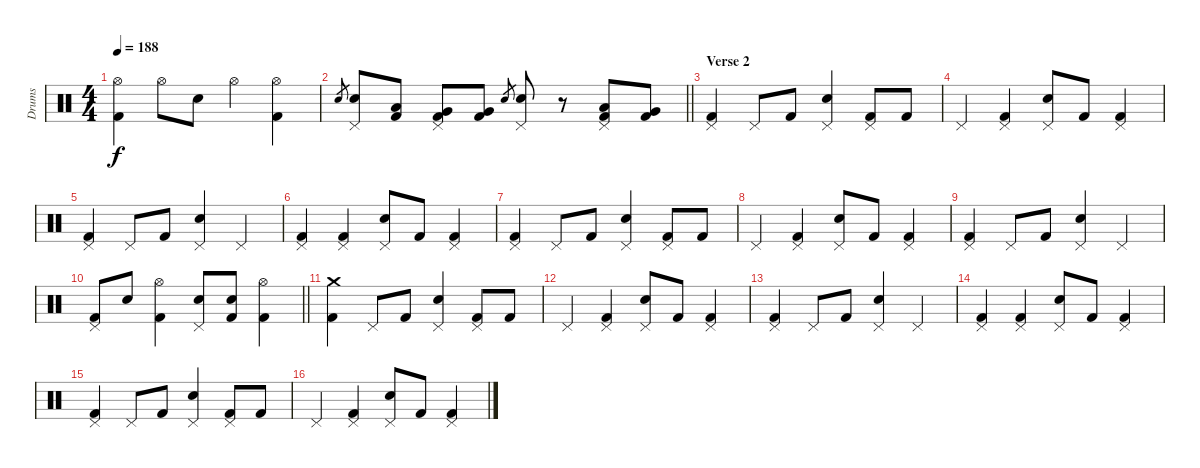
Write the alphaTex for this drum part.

\track ("Drums" "Drums") {instrument percussion}
\staff {score}
\articulation defaults
\ts (4 4)
\tempo 188
\clef neutral
\ks c
("Hi-Hat (open)" "Kick (hit) 2").4{dy f} "Hi-Hat (open)".8 "Electric Snare (hit)".8 "Hi-Hat (open)".4 ("Hi-Hat (open)" "Kick (hit) 2").4 |
\barLineRight lightlight "Electric Snare (hit)".8{gr}
("Pedal Hi-Hat (hit)" "Electric Snare (hit)").8 ("Low Tom (hit)" "Kick (hit) 2").8 ("Pedal Hi-Hat (hit)" "Very Low Tom (hit)" "Kick (hit) 2").8 ("Very Low Tom (hit)" "Kick (hit) 2").8 "Electric Snare (hit)".8{gr} ("Pedal Hi-Hat (hit)" "Electric Snare (hit)").8 r.8 ("Pedal Hi-Hat (hit)" "Low Tom (hit)" "Kick (hit) 2").8 ("Very Low Tom (hit)" "Kick (hit) 2").8 |
\section ("" "Verse 2")
("Pedal Hi-Hat (hit)" "Kick (hit) 2").4 "Pedal Hi-Hat (hit)".8 "Kick (hit) 2".8 ("Pedal Hi-Hat (hit)" "Electric Snare (hit)").4 ("Pedal Hi-Hat (hit)" "Kick (hit) 2").8 "Kick (hit) 2".8 |
"Pedal Hi-Hat (hit)".4 ("Pedal Hi-Hat (hit)" "Kick (hit) 2").4 ("Pedal Hi-Hat (hit)" "Electric Snare (hit)").8 "Kick (hit) 2".8 ("Pedal Hi-Hat (hit)" "Kick (hit) 2").4 |
("Pedal Hi-Hat (hit)" "Kick (hit) 2").4 "Pedal Hi-Hat (hit)".8 "Kick (hit) 2".8 ("Pedal Hi-Hat (hit)" "Electric Snare (hit)").4 "Pedal Hi-Hat (hit)".4 |
("Pedal Hi-Hat (hit)" "Kick (hit) 2").4 ("Pedal Hi-Hat (hit)" "Kick (hit) 2").4 ("Pedal Hi-Hat (hit)" "Electric Snare (hit)").8 "Kick (hit) 2".8 ("Pedal Hi-Hat (hit)" "Kick (hit) 2").4 |
("Pedal Hi-Hat (hit)" "Kick (hit) 2").4 "Pedal Hi-Hat (hit)".8 "Kick (hit) 2".8 ("Pedal Hi-Hat (hit)" "Electric Snare (hit)").4 ("Pedal Hi-Hat (hit)" "Kick (hit) 2").8 "Kick (hit) 2".8 |
"Pedal Hi-Hat (hit)".4 ("Pedal Hi-Hat (hit)" "Kick (hit) 2").4 ("Pedal Hi-Hat (hit)" "Electric Snare (hit)").8 "Kick (hit) 2".8 ("Pedal Hi-Hat (hit)" "Kick (hit) 2").4 |
("Pedal Hi-Hat (hit)" "Kick (hit) 2").4 "Pedal Hi-Hat (hit)".8 "Kick (hit) 2".8 ("Pedal Hi-Hat (hit)" "Electric Snare (hit)").4 "Pedal Hi-Hat (hit)".4 |
\barLineRight lightlight
("Pedal Hi-Hat (hit)" "Kick (hit) 2").8 "Electric Snare (hit)".8 ("Hi-Hat (open)" "Kick (hit) 2").4 ("Pedal Hi-Hat (hit)" "Electric Snare (hit)").8 ("Electric Snare (hit)" "Kick (hit) 2").8 ("Hi-Hat (open)" "Kick (hit) 2").4 |
("Crash medium (hit)" "Kick (hit) 2").4 "Pedal Hi-Hat (hit)".8 "Kick (hit) 2".8 ("Pedal Hi-Hat (hit)" "Electric Snare (hit)").4 ("Pedal Hi-Hat (hit)" "Kick (hit) 2").8 "Kick (hit) 2".8 |
"Pedal Hi-Hat (hit)".4 ("Pedal Hi-Hat (hit)" "Kick (hit) 2").4 ("Pedal Hi-Hat (hit)" "Electric Snare (hit)").8 "Kick (hit) 2".8 ("Pedal Hi-Hat (hit)" "Kick (hit) 2").4 |
("Pedal Hi-Hat (hit)" "Kick (hit) 2").4 "Pedal Hi-Hat (hit)".8 "Kick (hit) 2".8 ("Pedal Hi-Hat (hit)" "Electric Snare (hit)").4 "Pedal Hi-Hat (hit)".4 |
("Pedal Hi-Hat (hit)" "Kick (hit) 2").4 ("Pedal Hi-Hat (hit)" "Kick (hit) 2").4 ("Pedal Hi-Hat (hit)" "Electric Snare (hit)").8 "Kick (hit) 2".8 ("Pedal Hi-Hat (hit)" "Kick (hit) 2").4 |
("Pedal Hi-Hat (hit)" "Kick (hit) 2").4 "Pedal Hi-Hat (hit)".8 "Kick (hit) 2".8 ("Pedal Hi-Hat (hit)" "Electric Snare (hit)").4 ("Pedal Hi-Hat (hit)" "Kick (hit) 2").8 "Kick (hit) 2".8 |
"Pedal Hi-Hat (hit)".4 ("Pedal Hi-Hat (hit)" "Kick (hit) 2").4 ("Pedal Hi-Hat (hit)" "Electric Snare (hit)").8 "Kick (hit) 2".8 ("Pedal Hi-Hat (hit)" "Kick (hit) 2").4
